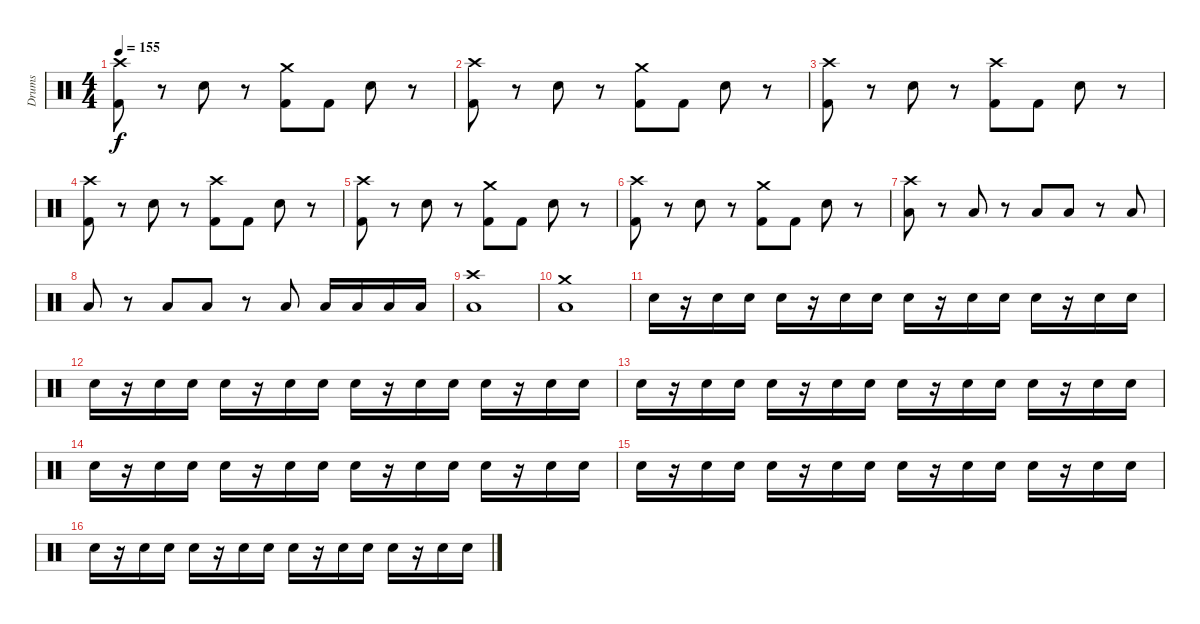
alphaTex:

\track ("Drums" "Drums") {instrument percussion}
\staff {score}
\articulation defaults
\ts (4 4)
\tempo 155
\clef neutral
\ks c
("Crash high (hit)" "Kick (hit) 2").8{dy f} r.8 "Snare (hit) 2".8 r.8 ("Crash medium (hit)" "Kick (hit) 2").8 "Kick (hit) 2".8 "Snare (hit) 2".8 r.8 |
("Crash high (hit)" "Kick (hit) 2").8 r.8 "Snare (hit) 2".8 r.8 ("Crash medium (hit)" "Kick (hit) 2").8 "Kick (hit) 2".8 "Snare (hit) 2".8 r.8 |
("Crash high (hit)" "Kick (hit) 2").8 r.8 "Snare (hit) 2".8 r.8 ("Crash high (hit)" "Kick (hit) 2").8 "Kick (hit) 2".8 "Snare (hit) 2".8 r.8 |
("Crash high (hit)" "Kick (hit) 2").8 r.8 "Snare (hit) 2".8 r.8 ("Crash high (hit)" "Kick (hit) 2").8 "Kick (hit) 2".8 "Snare (hit) 2".8 r.8 |
("Crash high (hit)" "Kick (hit) 2").8 r.8 "Snare (hit) 2".8 r.8 ("Crash medium (hit)" "Kick (hit) 2").8 "Kick (hit) 2".8 "Snare (hit) 2".8 r.8 |
("Crash high (hit)" "Kick (hit) 2").8 r.8 "Snare (hit) 2".8 r.8 ("Crash medium (hit)" "Kick (hit) 2").8 "Kick (hit) 2".8 "Snare (hit) 2".8 r.8 |
("Crash high (hit)" "Low Floor Tom (hit)").8 r.8 "Low Tom (hit)".8 r.8 "Low Floor Tom (hit)".8 "Low Tom (hit)".8 r.8 "Low Floor Tom (hit)".8 |
"Low Tom (hit)".8 r.8 "Low Floor Tom (hit)".8 "Low Tom (hit)".8 r.8 "Low Tom (hit)".8 "Low Floor Tom (hit)".16 "Low Floor Tom (hit)".16 "Low Floor Tom (hit)".16 "Low Floor Tom (hit)".16 |
("Crash high (hit)" "Low Tom (hit)").1 |
("Crash medium (hit)" "Low Tom (hit)").1 |
"Snare (hit) 2".16{volume 6} r.16 "Snare (hit) 2".16 "Snare (hit) 2".16 "Snare (hit) 2".16 r.16 "Snare (hit) 2".16 "Snare (hit) 2".16 "Snare (hit) 2".16 r.16 "Snare (hit) 2".16 "Snare (hit) 2".16 "Snare (hit) 2".16 r.16 "Snare (hit) 2".16 "Snare (hit) 2".16 |
"Snare (hit) 2".16{volume 7} r.16 "Snare (hit) 2".16 "Snare (hit) 2".16 "Snare (hit) 2".16 r.16 "Snare (hit) 2".16 "Snare (hit) 2".16 "Snare (hit) 2".16 r.16 "Snare (hit) 2".16 "Snare (hit) 2".16 "Snare (hit) 2".16 r.16 "Snare (hit) 2".16 "Snare (hit) 2".16 |
"Snare (hit) 2".16{volume 8} r.16 "Snare (hit) 2".16 "Snare (hit) 2".16 "Snare (hit) 2".16 r.16 "Snare (hit) 2".16 "Snare (hit) 2".16 "Snare (hit) 2".16 r.16 "Snare (hit) 2".16 "Snare (hit) 2".16 "Snare (hit) 2".16 r.16 "Snare (hit) 2".16 "Snare (hit) 2".16 |
"Snare (hit) 2".16{volume 9} r.16 "Snare (hit) 2".16 "Snare (hit) 2".16 "Snare (hit) 2".16 r.16 "Snare (hit) 2".16 "Snare (hit) 2".16 "Snare (hit) 2".16 r.16 "Snare (hit) 2".16 "Snare (hit) 2".16 "Snare (hit) 2".16 r.16 "Snare (hit) 2".16 "Snare (hit) 2".16 |
"Snare (hit) 2".16{volume 10} r.16 "Snare (hit) 2".16 "Snare (hit) 2".16 "Snare (hit) 2".16 r.16 "Snare (hit) 2".16 "Snare (hit) 2".16 "Snare (hit) 2".16 r.16 "Snare (hit) 2".16 "Snare (hit) 2".16 "Snare (hit) 2".16 r.16 "Snare (hit) 2".16 "Snare (hit) 2".16 |
"Snare (hit) 2".16{volume 11} r.16 "Snare (hit) 2".16 "Snare (hit) 2".16 "Snare (hit) 2".16 r.16 "Snare (hit) 2".16 "Snare (hit) 2".16 "Snare (hit) 2".16 r.16 "Snare (hit) 2".16 "Snare (hit) 2".16 "Snare (hit) 2".16 r.16 "Snare (hit) 2".16 "Snare (hit) 2".16
